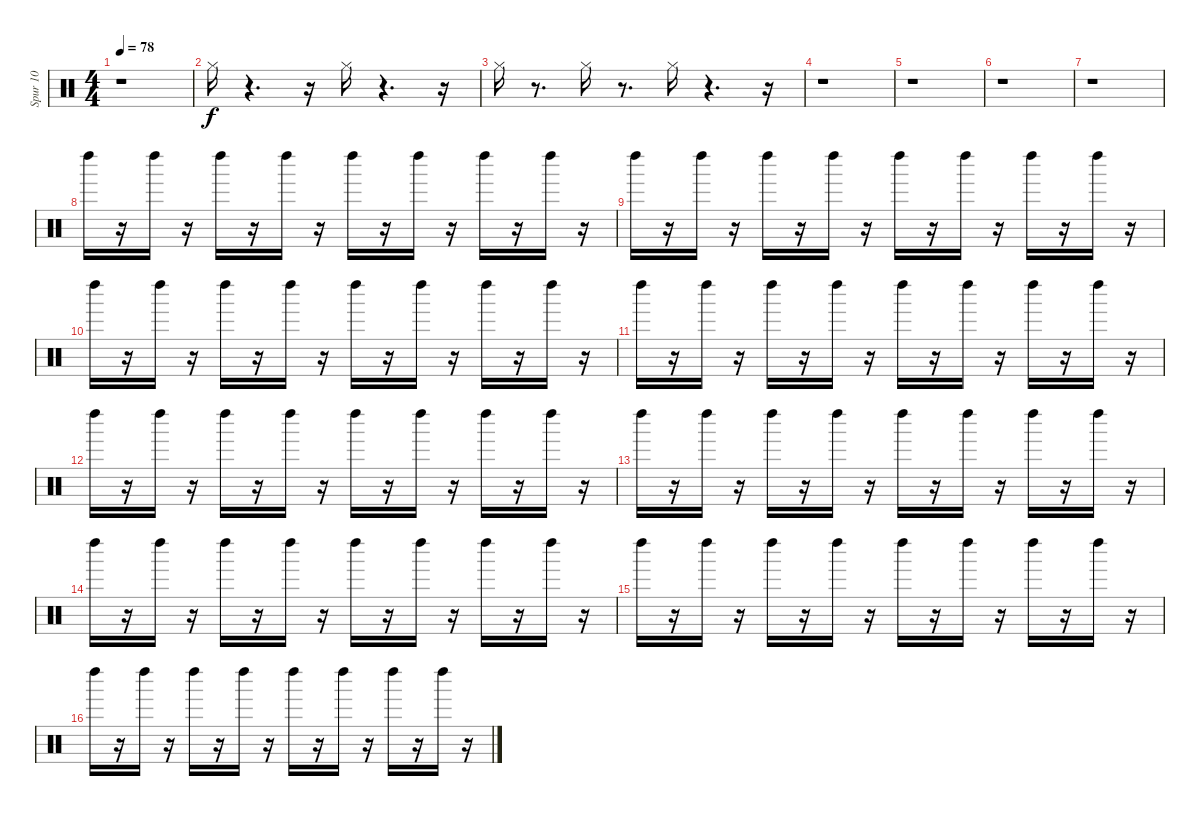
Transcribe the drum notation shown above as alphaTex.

\track ("Spur 10" "Spur 10") {instrument percussion}
\staff {score}
\articulation defaults
\ts (4 4)
\tempo 78
\clef neutral
\ks c
r.1{dy f} |
"Hi-Hat (closed)".16 r.4{d} r.16 "Hi-Hat (closed)".16 r.4{d} r.16 |
"Hi-Hat (closed)".16 r.8{d} "Hi-Hat (closed)".16 r.8{d} "Hi-Hat (closed)".16 r.4{d} r.16 |
r.1 |
r.1 |
r.1 |
r.1 |
"Left Maraca (hit)".16 r.16 "Left Maraca (hit)".16 r.16 "Left Maraca (hit)".16 r.16 "Left Maraca (hit)".16 r.16 "Left Maraca (hit)".16 r.16 "Left Maraca (hit)".16 r.16 "Left Maraca (hit)".16 r.16 "Left Maraca (hit)".16 r.16 |
"Left Maraca (hit)".16 r.16 "Left Maraca (hit)".16 r.16 "Left Maraca (hit)".16 r.16 "Left Maraca (hit)".16 r.16 "Left Maraca (hit)".16 r.16 "Left Maraca (hit)".16 r.16 "Left Maraca (hit)".16 r.16 "Left Maraca (hit)".16 r.16 |
"Left Maraca (hit)".16 r.16 "Left Maraca (hit)".16 r.16 "Left Maraca (hit)".16 r.16 "Left Maraca (hit)".16 r.16 "Left Maraca (hit)".16 r.16 "Left Maraca (hit)".16 r.16 "Left Maraca (hit)".16 r.16 "Left Maraca (hit)".16 r.16 |
"Left Maraca (hit)".16 r.16 "Left Maraca (hit)".16 r.16 "Left Maraca (hit)".16 r.16 "Left Maraca (hit)".16 r.16 "Left Maraca (hit)".16 r.16 "Left Maraca (hit)".16 r.16 "Left Maraca (hit)".16 r.16 "Left Maraca (hit)".16 r.16 |
"Left Maraca (hit)".16 r.16 "Left Maraca (hit)".16 r.16 "Left Maraca (hit)".16 r.16 "Left Maraca (hit)".16 r.16 "Left Maraca (hit)".16 r.16 "Left Maraca (hit)".16 r.16 "Left Maraca (hit)".16 r.16 "Left Maraca (hit)".16 r.16 |
"Left Maraca (hit)".16 r.16 "Left Maraca (hit)".16 r.16 "Left Maraca (hit)".16 r.16 "Left Maraca (hit)".16 r.16 "Left Maraca (hit)".16 r.16 "Left Maraca (hit)".16 r.16 "Left Maraca (hit)".16 r.16 "Left Maraca (hit)".16 r.16 |
"Left Maraca (hit)".16 r.16 "Left Maraca (hit)".16 r.16 "Left Maraca (hit)".16 r.16 "Left Maraca (hit)".16 r.16 "Left Maraca (hit)".16 r.16 "Left Maraca (hit)".16 r.16 "Left Maraca (hit)".16 r.16 "Left Maraca (hit)".16 r.16 |
"Left Maraca (hit)".16 r.16 "Left Maraca (hit)".16 r.16 "Left Maraca (hit)".16 r.16 "Left Maraca (hit)".16 r.16 "Left Maraca (hit)".16 r.16 "Left Maraca (hit)".16 r.16 "Left Maraca (hit)".16 r.16 "Left Maraca (hit)".16 r.16 |
"Left Maraca (hit)".16 r.16 "Left Maraca (hit)".16 r.16 "Left Maraca (hit)".16 r.16 "Left Maraca (hit)".16 r.16 "Left Maraca (hit)".16 r.16 "Left Maraca (hit)".16 r.16 "Left Maraca (hit)".16 r.16 "Left Maraca (hit)".16 r.16
